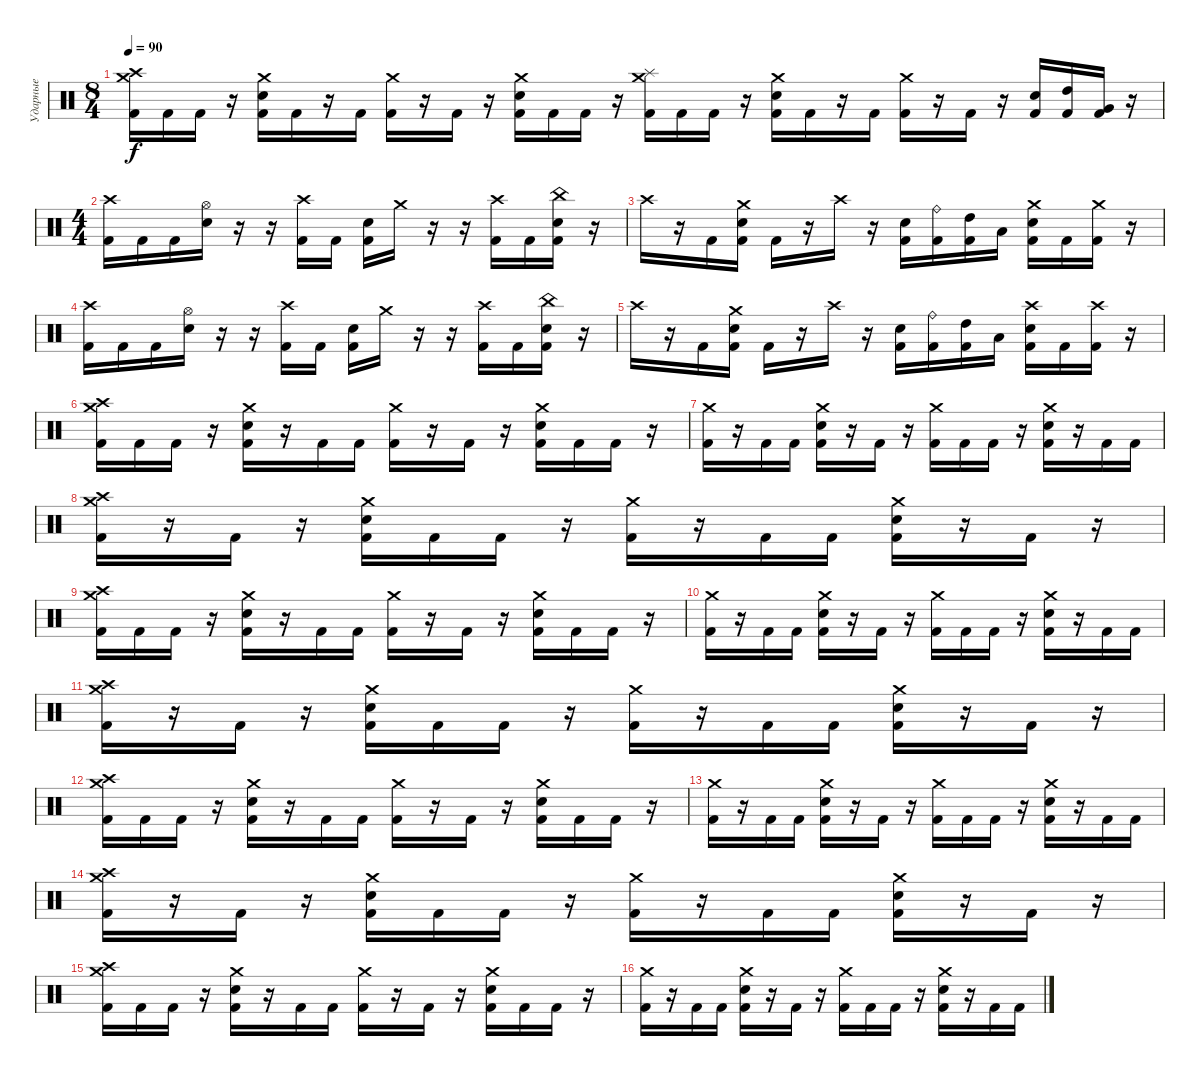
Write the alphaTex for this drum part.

\track ("Ударные" "Ударные") {instrument percussion}
\staff {score}
\articulation defaults
\ts (8 4)
\tempo 90
\clef neutral
\ks c
("Crash medium (hit)" "Crash high (hit)" "Kick (hit) 2").16{dy f} "Kick (hit) 2".16 "Kick (hit) 2".16 r.16 ("Crash medium (hit)" "Electric Snare (hit)" "Kick (hit) 2").16 "Kick (hit) 2".16 r.16 "Kick (hit) 2".16 ("Crash medium (hit)" "Kick (hit) 2").16 r.16 "Kick (hit) 2".16 r.16 ("Crash medium (hit)" "Electric Snare (hit)" "Kick (hit) 2").16 "Kick (hit) 2".16 "Kick (hit) 2".16 r.16 ("Crash medium (hit)" "Splash (hit)" "Kick (hit) 2").16 "Kick (hit) 2".16 "Kick (hit) 2".16 r.16 ("Crash medium (hit)" "Electric Snare (hit)" "Kick (hit) 2").16 "Kick (hit) 2".16 r.16 "Kick (hit) 2".16 ("Crash medium (hit)" "Kick (hit) 2").16 r.16 "Kick (hit) 2".16 r.16 ("Electric Snare (hit)" "Kick (hit) 2").16 ("High Tom (hit)" "Kick (hit) 2").16 ("Very Low Tom (hit)" "Kick (hit) 2").16 r.16 |
\ts (4 4)
("Crash high (hit)" "Kick (hit) 2").16 "Kick (hit) 2".16 "Kick (hit) 2".16 ("Hi-Hat (open)" "Electric Snare (hit)").16 r.16 r.16 ("Crash high (hit)" "Kick (hit) 2").16 "Kick (hit) 2".16 ("Electric Snare (hit)" "Kick (hit) 2").16 "Crash medium (hit)".16 r.16 r.16 ("Crash high (hit)" "Kick (hit) 2").16 "Kick (hit) 2".16 ("China (hit)" "Electric Snare (hit)" "Kick (hit) 2").16 r.16 |
"Crash high (hit)".16 r.16 "Kick (hit) 2".16 ("Crash medium (hit)" "Electric Snare (hit)" "Kick (hit) 2").16 "Kick (hit) 2".16 r.16 "Crash high (hit)".16 r.16 ("Electric Snare (hit)" "Kick (hit) 2").16 ("Ride (bell)" "Kick (hit) 2").16 ("High Tom (hit)" "Kick (hit) 2").16 "Low Tom (hit)".16 ("Crash medium (hit)" "Electric Snare (hit)" "Kick (hit) 2").16 "Kick (hit) 2".16 ("Crash medium (hit)" "Kick (hit) 2").16 r.16 |
("Crash high (hit)" "Kick (hit) 2").16 "Kick (hit) 2".16 "Kick (hit) 2".16 ("Hi-Hat (open)" "Electric Snare (hit)").16 r.16 r.16 ("Crash high (hit)" "Kick (hit) 2").16 "Kick (hit) 2".16 ("Electric Snare (hit)" "Kick (hit) 2").16 "Crash medium (hit)".16 r.16 r.16 ("Crash high (hit)" "Kick (hit) 2").16 "Kick (hit) 2".16 ("China (hit)" "Electric Snare (hit)" "Kick (hit) 2").16 r.16 |
"Crash high (hit)".16 r.16 "Kick (hit) 2".16 ("Crash medium (hit)" "Electric Snare (hit)" "Kick (hit) 2").16 "Kick (hit) 2".16 r.16 "Crash high (hit)".16 r.16 ("Electric Snare (hit)" "Kick (hit) 2").16 ("Ride (bell)" "Kick (hit) 2").16 ("High Tom (hit)" "Kick (hit) 2").16 "Low Tom (hit)".16 ("Crash high (hit)" "Electric Snare (hit)" "Kick (hit) 2").16 "Kick (hit) 2".16 ("Crash high (hit)" "Kick (hit) 2").16 r.16 |
("Crash medium (hit)" "Crash high (hit)" "Kick (hit) 2").16 "Kick (hit) 2".16 "Kick (hit) 2".16 r.16 ("Crash medium (hit)" "Electric Snare (hit)" "Kick (hit) 2").16 r.16 "Kick (hit) 2".16 "Kick (hit) 2".16 ("Crash medium (hit)" "Kick (hit) 2").16 r.16 "Kick (hit) 2".16 r.16 ("Crash medium (hit)" "Electric Snare (hit)" "Kick (hit) 2").16 "Kick (hit) 2".16 "Kick (hit) 2".16 r.16 |
("Crash medium (hit)" "Kick (hit) 2").16 r.16 "Kick (hit) 2".16 "Kick (hit) 2".16 ("Crash medium (hit)" "Electric Snare (hit)" "Kick (hit) 2").16 r.16 "Kick (hit) 2".16 r.16 ("Crash medium (hit)" "Kick (hit) 2").16 "Kick (hit) 2".16 "Kick (hit) 2".16 r.16 ("Crash medium (hit)" "Electric Snare (hit)" "Kick (hit) 2").16 r.16 "Kick (hit) 2".16 "Kick (hit) 2".16 |
("Crash medium (hit)" "Crash high (hit)" "Kick (hit) 2").16 r.16 "Kick (hit) 2".16 r.16 ("Crash medium (hit)" "Electric Snare (hit)" "Kick (hit) 2").16 "Kick (hit) 2".16 "Kick (hit) 2".16 r.16 ("Crash medium (hit)" "Kick (hit) 2").16 r.16 "Kick (hit) 2".16 "Kick (hit) 2".16 ("Crash medium (hit)" "Electric Snare (hit)" "Kick (hit) 2").16 r.16 "Kick (hit) 2".16 r.16 |
("Crash medium (hit)" "Crash high (hit)" "Kick (hit) 2").16 "Kick (hit) 2".16 "Kick (hit) 2".16 r.16 ("Crash medium (hit)" "Electric Snare (hit)" "Kick (hit) 2").16 r.16 "Kick (hit) 2".16 "Kick (hit) 2".16 ("Crash medium (hit)" "Kick (hit) 2").16 r.16 "Kick (hit) 2".16 r.16 ("Crash medium (hit)" "Electric Snare (hit)" "Kick (hit) 2").16 "Kick (hit) 2".16 "Kick (hit) 2".16 r.16 |
("Crash medium (hit)" "Kick (hit) 2").16 r.16 "Kick (hit) 2".16 "Kick (hit) 2".16 ("Crash medium (hit)" "Electric Snare (hit)" "Kick (hit) 2").16 r.16 "Kick (hit) 2".16 r.16 ("Crash medium (hit)" "Kick (hit) 2").16 "Kick (hit) 2".16 "Kick (hit) 2".16 r.16 ("Crash medium (hit)" "Electric Snare (hit)" "Kick (hit) 2").16 r.16 "Kick (hit) 2".16 "Kick (hit) 2".16 |
("Crash medium (hit)" "Crash high (hit)" "Kick (hit) 2").16 r.16 "Kick (hit) 2".16 r.16 ("Crash medium (hit)" "Electric Snare (hit)" "Kick (hit) 2").16 "Kick (hit) 2".16 "Kick (hit) 2".16 r.16 ("Crash medium (hit)" "Kick (hit) 2").16 r.16 "Kick (hit) 2".16 "Kick (hit) 2".16 ("Crash medium (hit)" "Electric Snare (hit)" "Kick (hit) 2").16 r.16 "Kick (hit) 2".16 r.16 |
("Crash medium (hit)" "Crash high (hit)" "Kick (hit) 2").16 "Kick (hit) 2".16 "Kick (hit) 2".16 r.16 ("Crash medium (hit)" "Electric Snare (hit)" "Kick (hit) 2").16 r.16 "Kick (hit) 2".16 "Kick (hit) 2".16 ("Crash medium (hit)" "Kick (hit) 2").16 r.16 "Kick (hit) 2".16 r.16 ("Crash medium (hit)" "Electric Snare (hit)" "Kick (hit) 2").16 "Kick (hit) 2".16 "Kick (hit) 2".16 r.16 |
("Crash medium (hit)" "Kick (hit) 2").16 r.16 "Kick (hit) 2".16 "Kick (hit) 2".16 ("Crash medium (hit)" "Electric Snare (hit)" "Kick (hit) 2").16 r.16 "Kick (hit) 2".16 r.16 ("Crash medium (hit)" "Kick (hit) 2").16 "Kick (hit) 2".16 "Kick (hit) 2".16 r.16 ("Crash medium (hit)" "Electric Snare (hit)" "Kick (hit) 2").16 r.16 "Kick (hit) 2".16 "Kick (hit) 2".16 |
("Crash medium (hit)" "Crash high (hit)" "Kick (hit) 2").16 r.16 "Kick (hit) 2".16 r.16 ("Crash medium (hit)" "Electric Snare (hit)" "Kick (hit) 2").16 "Kick (hit) 2".16 "Kick (hit) 2".16 r.16 ("Crash medium (hit)" "Kick (hit) 2").16 r.16 "Kick (hit) 2".16 "Kick (hit) 2".16 ("Crash medium (hit)" "Electric Snare (hit)" "Kick (hit) 2").16 r.16 "Kick (hit) 2".16 r.16 |
("Crash medium (hit)" "Crash high (hit)" "Kick (hit) 2").16 "Kick (hit) 2".16 "Kick (hit) 2".16 r.16 ("Crash medium (hit)" "Electric Snare (hit)" "Kick (hit) 2").16 r.16 "Kick (hit) 2".16 "Kick (hit) 2".16 ("Crash medium (hit)" "Kick (hit) 2").16 r.16 "Kick (hit) 2".16 r.16 ("Crash medium (hit)" "Electric Snare (hit)" "Kick (hit) 2").16 "Kick (hit) 2".16 "Kick (hit) 2".16 r.16 |
("Crash medium (hit)" "Kick (hit) 2").16 r.16 "Kick (hit) 2".16 "Kick (hit) 2".16 ("Crash medium (hit)" "Electric Snare (hit)" "Kick (hit) 2").16 r.16 "Kick (hit) 2".16 r.16 ("Crash medium (hit)" "Kick (hit) 2").16 "Kick (hit) 2".16 "Kick (hit) 2".16 r.16 ("Crash medium (hit)" "Electric Snare (hit)" "Kick (hit) 2").16 r.16 "Kick (hit) 2".16 "Kick (hit) 2".16
